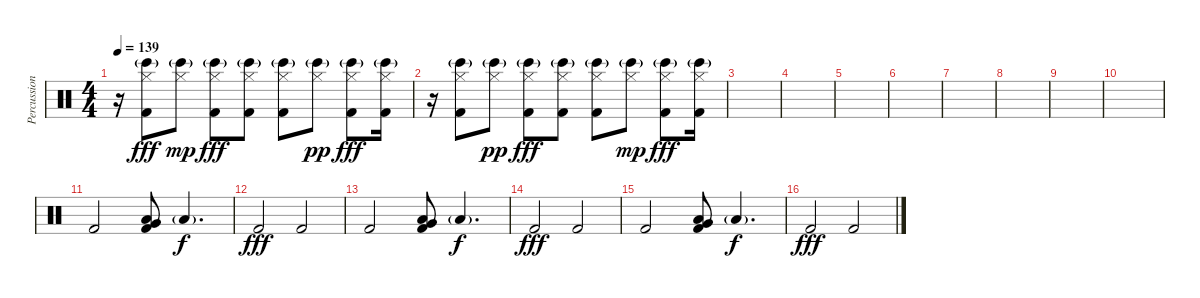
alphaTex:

\track ("Percussion" "Percussion") {instrument percussion}
\staff {score}
\articulation defaults
\ts (4 4)
\tempo 139
\clef neutral
\ks c
r.16{dy fff} ("Hi-Hat (closed)" "Bongo High (hit)"{g} "Kick (hit) 2").8{balance 16} ("Hi-Hat (closed)" "Bongo High (hit)"{g}).8{dy mp balance 0} ("Hi-Hat (closed)" "Bongo High (hit)"{g} "Kick (hit) 2").8{dy fff balance 16} ("Hi-Hat (closed)" "Bongo High (hit)"{g} "Kick (hit) 2").8{balance 0} ("Hi-Hat (closed)" "Bongo High (hit)"{g} "Kick (hit) 2").8{balance 16} ("Hi-Hat (closed)" "Bongo High (hit)"{g}).8{dy pp balance 0} ("Hi-Hat (closed)" "Bongo High (hit)"{g} "Kick (hit) 2").8{dy fff balance 16} ("Hi-Hat (closed)" "Bongo High (hit)"{g} "Kick (hit) 2").16{balance 0} |
r.16 ("Hi-Hat (closed)" "Bongo High (hit)"{g} "Kick (hit) 2").8{balance 16} ("Hi-Hat (closed)" "Bongo High (hit)"{g}).8{dy pp balance 0} ("Hi-Hat (closed)" "Bongo High (hit)"{g} "Kick (hit) 2").8{dy fff balance 16} ("Hi-Hat (closed)" "Bongo High (hit)"{g} "Kick (hit) 2").8{balance 0} ("Hi-Hat (closed)" "Bongo High (hit)"{g} "Kick (hit) 2").8{balance 16} ("Hi-Hat (closed)" "Bongo High (hit)"{g}).8{dy mp balance 0} ("Hi-Hat (closed)" "Bongo High (hit)"{g} "Kick (hit) 2").8{dy fff balance 16} ("Hi-Hat (closed)" "Bongo High (hit)"{g} "Kick (hit) 2").16{balance 0} |
|
|
|
|
|
|
|
|
"Kick (hit) 2".2{volume 16} ("Kick (hit) 2" "Very Low Tom (hit)" "Low Floor Tom (hit)").8 "Low Floor Tom (hit)"{g}.4{d dy f} |
"Kick (hit) 2".2{dy fff} "Kick (hit) 2".2 |
"Kick (hit) 2".2 ("Kick (hit) 2" "Very Low Tom (hit)" "Low Floor Tom (hit)").8 "Low Floor Tom (hit)"{g}.4{d dy f} |
"Kick (hit) 2".2{dy fff} "Kick (hit) 2".2 |
"Kick (hit) 2".2 ("Kick (hit) 2" "Very Low Tom (hit)" "Low Floor Tom (hit)").8 "Low Floor Tom (hit)"{g}.4{d dy f} |
"Kick (hit) 2".2{dy fff} "Kick (hit) 2".2
